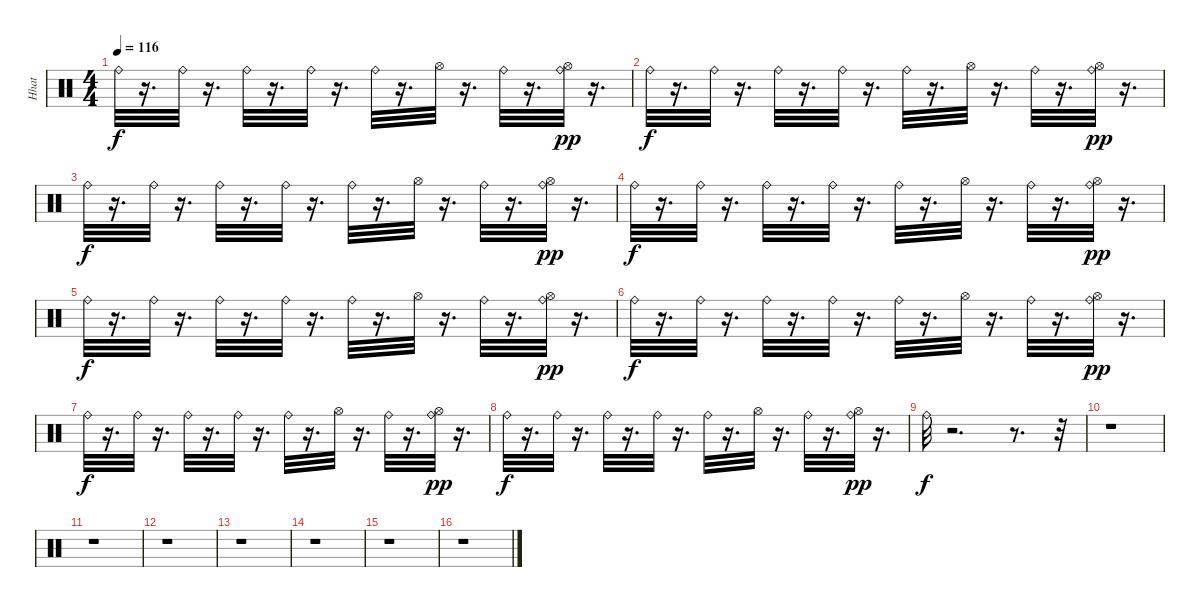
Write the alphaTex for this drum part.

\track ("Hhat" "Hhat") {instrument percussion}
\staff {score}
\articulation defaults
\ts (4 4)
\tempo 116
\clef neutral
\ks c "Ride (bell)".32{dy f}
r.16{d} "Ride (bell)".32 r.16{d} "Ride (bell)".32 r.16{d} "Ride (bell)".32 r.16{d} "Ride (bell)".32 r.16{d} "Hi-Hat (open)".32 r.16{d} "Ride (bell)".32 r.16{d} ("Ride (bell)" "Hi-Hat (open)").32{dy pp} r.16{d} |
"Ride (bell)".32{dy f} r.16{d} "Ride (bell)".32 r.16{d} "Ride (bell)".32 r.16{d} "Ride (bell)".32 r.16{d} "Ride (bell)".32 r.16{d} "Hi-Hat (open)".32 r.16{d} "Ride (bell)".32 r.16{d} ("Ride (bell)" "Hi-Hat (open)").32{dy pp} r.16{d} |
"Ride (bell)".32{dy f} r.16{d} "Ride (bell)".32 r.16{d} "Ride (bell)".32 r.16{d} "Ride (bell)".32 r.16{d} "Ride (bell)".32 r.16{d} "Hi-Hat (open)".32 r.16{d} "Ride (bell)".32 r.16{d} ("Ride (bell)" "Hi-Hat (open)").32{dy pp} r.16{d} |
"Ride (bell)".32{dy f} r.16{d} "Ride (bell)".32 r.16{d} "Ride (bell)".32 r.16{d} "Ride (bell)".32 r.16{d} "Ride (bell)".32 r.16{d} "Hi-Hat (open)".32 r.16{d} "Ride (bell)".32 r.16{d} ("Ride (bell)" "Hi-Hat (open)").32{dy pp} r.16{d} |
"Ride (bell)".32{dy f} r.16{d} "Ride (bell)".32 r.16{d} "Ride (bell)".32 r.16{d} "Ride (bell)".32 r.16{d} "Ride (bell)".32 r.16{d} "Hi-Hat (open)".32 r.16{d} "Ride (bell)".32 r.16{d} ("Ride (bell)" "Hi-Hat (open)").32{dy pp} r.16{d} |
"Ride (bell)".32{dy f} r.16{d} "Ride (bell)".32 r.16{d} "Ride (bell)".32 r.16{d} "Ride (bell)".32 r.16{d} "Ride (bell)".32 r.16{d} "Hi-Hat (open)".32 r.16{d} "Ride (bell)".32 r.16{d} ("Ride (bell)" "Hi-Hat (open)").32{dy pp} r.16{d} |
"Ride (bell)".32{dy f} r.16{d} "Ride (bell)".32 r.16{d} "Ride (bell)".32 r.16{d} "Ride (bell)".32 r.16{d} "Ride (bell)".32 r.16{d} "Hi-Hat (open)".32 r.16{d} "Ride (bell)".32 r.16{d} ("Ride (bell)" "Hi-Hat (open)").32{dy pp} r.16{d} |
"Ride (bell)".32{dy f} r.16{d} "Ride (bell)".32 r.16{d} "Ride (bell)".32 r.16{d} "Ride (bell)".32 r.16{d} "Ride (bell)".32 r.16{d} "Hi-Hat (open)".32 r.16{d} "Ride (bell)".32 r.16{d} ("Ride (bell)" "Hi-Hat (open)").32{dy pp} r.16{d} |
"Ride (bell)".32{dy f} r.2{d} r.8{d} r.32 |
r.1 |
r.1 |
r.1 |
r.1 |
r.1 |
r.1 |
r.1
